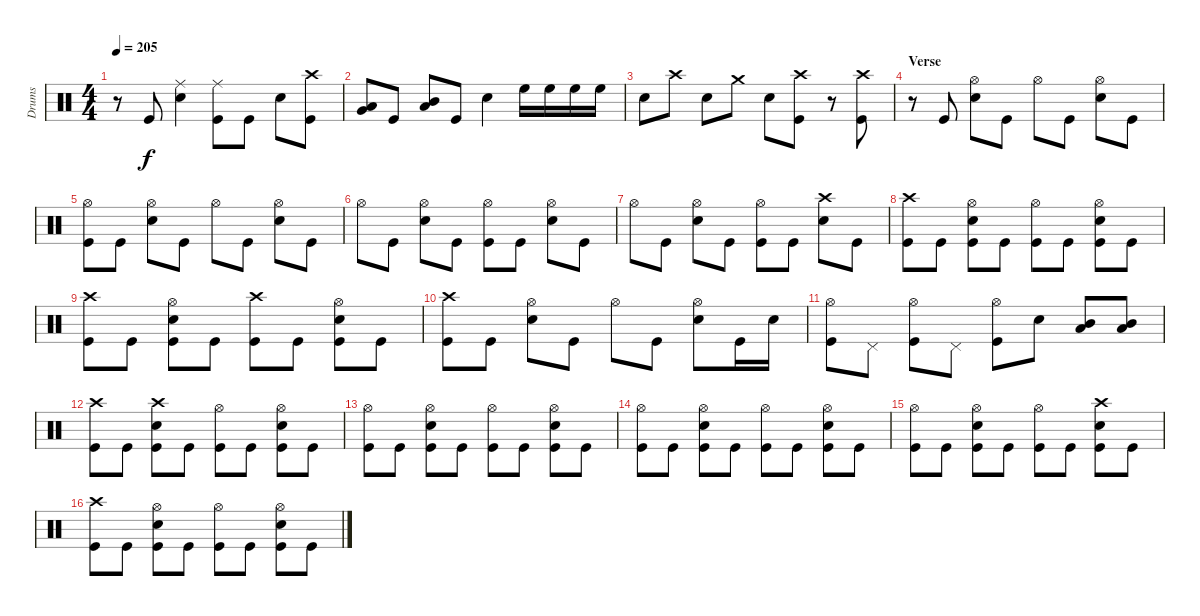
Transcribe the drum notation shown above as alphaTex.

\track ("Drums" "Drums") {instrument percussion}
\staff {score}
\articulation defaults
\ts (4 4)
\tempo 205
\clef neutral
\ks c
r.8{dy f} "Kick (hit)".8 ("Ride (middle)" "Snare (hit) 2").4 ("Ride (middle)" "Kick (hit)").8 "Kick (hit)".8 "Snare (hit) 2".8 ("Crash high (hit)" "Kick (hit)").8 |
("Low Tom (hit)" "Very Low Tom (hit)").8 "Kick (hit)".8 ("Mid Tom (hit)" "Low Tom (hit)").8 "Kick (hit)".8 "Snare (hit) 2".4 "High Floor Tom (hit)".16 "High Floor Tom (hit)".16 "High Floor Tom (hit)".16 "High Floor Tom (hit)".16 |
"Snare (hit) 2".8 "Crash high (hit)".8 "Snare (hit) 2".8 "Crash medium (hit)".8 "Snare (hit) 2".8 ("Crash high (hit)" "Kick (hit)").8 r.8 ("Crash high (hit)" "Kick (hit)").8 |
\section ("" "Verse")
r.8 "Kick (hit)".8 ("Hi-Hat (open)" "Snare (hit) 2").8 "Kick (hit)".8 "Hi-Hat (open)".8 "Kick (hit)".8 ("Hi-Hat (open)" "Snare (hit) 2").8 "Kick (hit)".8 |
("Hi-Hat (open)" "Kick (hit)").8 "Kick (hit)".8 ("Hi-Hat (open)" "Snare (hit) 2").8 "Kick (hit)".8 "Hi-Hat (open)".8 "Kick (hit)".8 ("Hi-Hat (open)" "Snare (hit) 2").8 "Kick (hit)".8 |
"Hi-Hat (open)".8 "Kick (hit)".8 ("Hi-Hat (open)" "Snare (hit) 2").8 "Kick (hit)".8 ("Hi-Hat (open)" "Kick (hit)").8 "Kick (hit)".8 ("Hi-Hat (open)" "Snare (hit) 2").8 "Kick (hit)".8 |
"Hi-Hat (open)".8 "Kick (hit)".8 ("Hi-Hat (open)" "Snare (hit) 2").8 "Kick (hit)".8 ("Hi-Hat (open)" "Kick (hit)").8 "Kick (hit)".8 ("Crash high (hit)" "Snare (hit) 2").8 "Kick (hit)".8 |
("Crash high (hit)" "Kick (hit)").8 "Kick (hit)".8 ("Hi-Hat (open)" "Snare (hit) 2" "Kick (hit)").8 "Kick (hit)".8 ("Hi-Hat (open)" "Kick (hit)").8 "Kick (hit)".8 ("Hi-Hat (open)" "Snare (hit) 2" "Kick (hit)").8 "Kick (hit)".8 |
("Crash high (hit)" "Kick (hit)").8 "Kick (hit)".8 ("Hi-Hat (open)" "Snare (hit) 2" "Kick (hit)").8 "Kick (hit)".8 ("Crash high (hit)" "Kick (hit)").8 "Kick (hit)".8 ("Hi-Hat (open)" "Snare (hit) 2" "Kick (hit)").8 "Kick (hit)".8 |
("Crash high (hit)" "Kick (hit)").8 "Kick (hit)".8 ("Hi-Hat (open)" "Snare (hit) 2").8 "Kick (hit)".8 "Hi-Hat (open)".8 "Kick (hit)".8 ("Hi-Hat (open)" "Snare (hit) 2").8 "Kick (hit)".16 "Snare (hit) 2".16 |
("Hi-Hat (open)" "Kick (hit)").8 "Pedal Hi-Hat (hit)".8 ("Hi-Hat (open)" "Kick (hit)").8 "Pedal Hi-Hat (hit)".8 ("Hi-Hat (open)" "Kick (hit)").8 "Snare (hit) 2".8 ("Mid Tom (hit)" "Low Tom (hit)").8 ("Mid Tom (hit)" "Low Tom (hit)").8 |
("Crash high (hit)" "Kick (hit)").8 "Kick (hit)".8 ("Crash high (hit)" "Snare (hit) 2" "Kick (hit)").8 "Kick (hit)".8 ("Hi-Hat (open)" "Kick (hit)").8 "Kick (hit)".8 ("Hi-Hat (open)" "Snare (hit) 2" "Kick (hit)").8 "Kick (hit)".8 |
("Hi-Hat (open)" "Kick (hit)").8 "Kick (hit)".8 ("Hi-Hat (open)" "Snare (hit) 2" "Kick (hit)").8 "Kick (hit)".8 ("Hi-Hat (open)" "Kick (hit)").8 "Kick (hit)".8 ("Hi-Hat (open)" "Snare (hit) 2" "Kick (hit)").8 "Kick (hit)".8 |
("Hi-Hat (open)" "Kick (hit)").8 "Kick (hit)".8 ("Hi-Hat (open)" "Snare (hit) 2" "Kick (hit)").8 "Kick (hit)".8 ("Hi-Hat (open)" "Kick (hit)").8 "Kick (hit)".8 ("Hi-Hat (open)" "Snare (hit) 2" "Kick (hit)").8 "Kick (hit)".8 |
("Hi-Hat (open)" "Kick (hit)").8 "Kick (hit)".8 ("Hi-Hat (open)" "Snare (hit) 2" "Kick (hit)").8 "Kick (hit)".8 ("Hi-Hat (open)" "Kick (hit)").8 "Kick (hit)".8 ("Crash high (hit)" "Snare (hit) 2" "Kick (hit)").8 "Kick (hit)".8 |
("Crash high (hit)" "Kick (hit)").8 "Kick (hit)".8 ("Hi-Hat (open)" "Snare (hit) 2" "Kick (hit)").8 "Kick (hit)".8 ("Hi-Hat (open)" "Kick (hit)").8 "Kick (hit)".8 ("Hi-Hat (open)" "Snare (hit) 2" "Kick (hit)").8 "Kick (hit)".8
